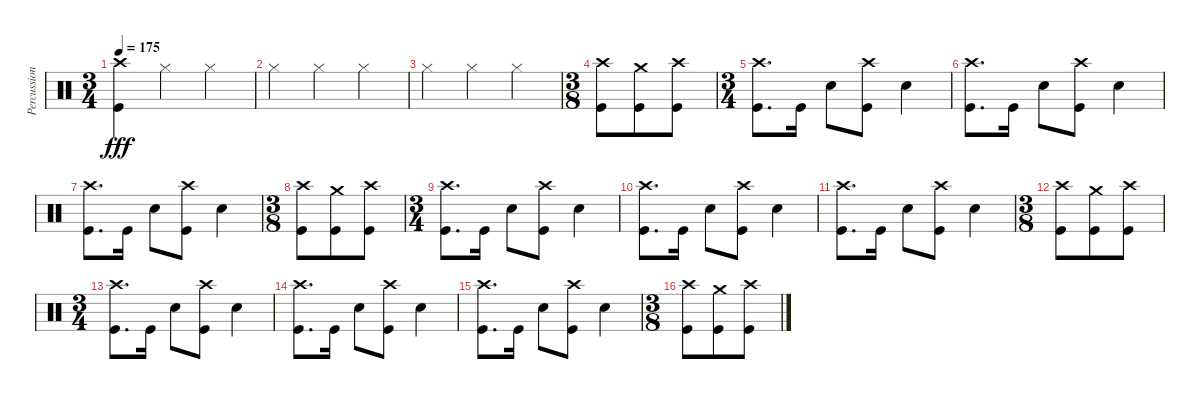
\track ("Percussion" "Percussion") {instrument percussion}
\staff {score}
\articulation defaults
\ts (3 4)
\tempo 175
\clef neutral
\ks c
("Crash high (hit)" "Kick (hit)").4{dy fff} "Hi-Hat (closed)".4 "Hi-Hat (closed)".4 |
"Hi-Hat (closed)".4 "Hi-Hat (closed)".4 "Hi-Hat (closed)".4 |
"Hi-Hat (closed)".4 "Hi-Hat (closed)".4 "Hi-Hat (closed)".4 |
\ts (3 8)
("Crash high (hit)" "Kick (hit)").8 ("Crash medium (hit)" "Kick (hit)").8 ("Crash high (hit)" "Kick (hit)").8 |
\ts (3 4)
("Crash high (hit)" "Kick (hit)").8{d} "Kick (hit)".16 "Snare (hit) 2".8 ("Crash high (hit)" "Kick (hit)").8 "Snare (hit) 2".4 |
("Crash high (hit)" "Kick (hit)").8{d} "Kick (hit)".16 "Snare (hit) 2".8 ("Crash high (hit)" "Kick (hit)").8 "Snare (hit) 2".4 |
("Crash high (hit)" "Kick (hit)").8{d} "Kick (hit)".16 "Snare (hit) 2".8 ("Crash high (hit)" "Kick (hit)").8 "Snare (hit) 2".4 |
\ts (3 8)
("Crash high (hit)" "Kick (hit)").8 ("Crash medium (hit)" "Kick (hit)").8 ("Crash high (hit)" "Kick (hit)").8 |
\ts (3 4)
("Crash high (hit)" "Kick (hit)").8{d} "Kick (hit)".16 "Snare (hit) 2".8 ("Crash high (hit)" "Kick (hit)").8 "Snare (hit) 2".4 |
("Crash high (hit)" "Kick (hit)").8{d} "Kick (hit)".16 "Snare (hit) 2".8 ("Crash high (hit)" "Kick (hit)").8 "Snare (hit) 2".4 |
("Crash high (hit)" "Kick (hit)").8{d} "Kick (hit)".16 "Snare (hit) 2".8 ("Crash high (hit)" "Kick (hit)").8 "Snare (hit) 2".4 |
\ts (3 8)
("Crash high (hit)" "Kick (hit)").8 ("Crash medium (hit)" "Kick (hit)").8 ("Crash high (hit)" "Kick (hit)").8 |
\ts (3 4)
("Crash high (hit)" "Kick (hit)").8{d} "Kick (hit)".16 "Snare (hit) 2".8 ("Crash high (hit)" "Kick (hit)").8 "Snare (hit) 2".4 |
("Crash high (hit)" "Kick (hit)").8{d} "Kick (hit)".16 "Snare (hit) 2".8 ("Crash high (hit)" "Kick (hit)").8 "Snare (hit) 2".4 |
("Crash high (hit)" "Kick (hit)").8{d} "Kick (hit)".16 "Snare (hit) 2".8 ("Crash high (hit)" "Kick (hit)").8 "Snare (hit) 2".4 |
\ts (3 8)
("Crash high (hit)" "Kick (hit)").8 ("Crash medium (hit)" "Kick (hit)").8 ("Crash high (hit)" "Kick (hit)").8
